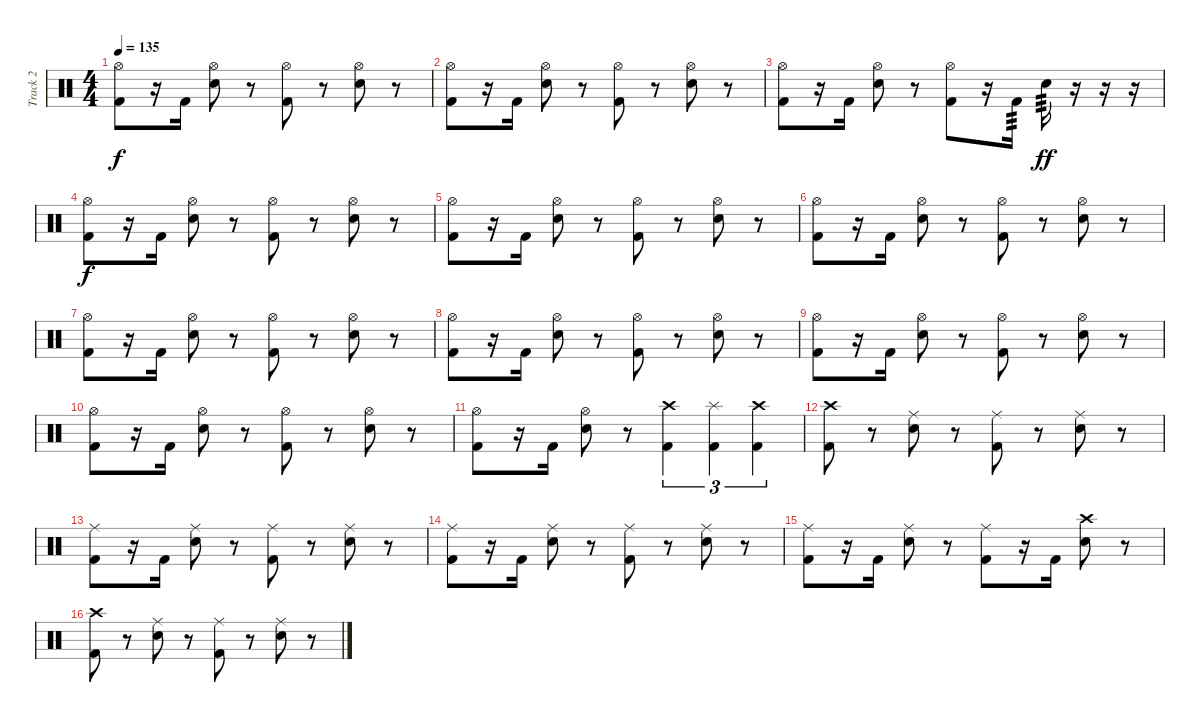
\track ("Track 2" "Track 2") {instrument percussion}
\staff {score}
\articulation defaults
\ts (4 4)
\tempo 135
\clef neutral
\ks c
("Hi-Hat (open)" "Kick (hit) 2").8{dy f} r.16 "Kick (hit) 2".16 ("Hi-Hat (open)" "Electric Snare (hit)").8 r.8 ("Hi-Hat (open)" "Kick (hit) 2").8 r.8 ("Hi-Hat (open)" "Electric Snare (hit)").8 r.8 |
("Hi-Hat (open)" "Kick (hit) 2").8 r.16 "Kick (hit) 2".16 ("Hi-Hat (open)" "Electric Snare (hit)").8 r.8 ("Hi-Hat (open)" "Kick (hit) 2").8 r.8 ("Hi-Hat (open)" "Electric Snare (hit)").8 r.8 |
("Hi-Hat (open)" "Kick (hit) 2").8 r.16 "Kick (hit) 2".16 ("Hi-Hat (open)" "Electric Snare (hit)").8 r.8 ("Hi-Hat (open)" "Kick (hit) 2").8 r.16 "Kick (hit) 2".16{tp 3} "Electric Snare (hit)".16{tp 3 dy ff} r.16 r.16 r.16 |
("Hi-Hat (open)" "Kick (hit) 2").8{dy f} r.16 "Kick (hit) 2".16 ("Hi-Hat (open)" "Electric Snare (hit)").8 r.8 ("Hi-Hat (open)" "Kick (hit) 2").8 r.8 ("Hi-Hat (open)" "Electric Snare (hit)").8 r.8 |
("Hi-Hat (open)" "Kick (hit) 2").8 r.16 "Kick (hit) 2".16 ("Hi-Hat (open)" "Electric Snare (hit)").8 r.8 ("Hi-Hat (open)" "Kick (hit) 2").8 r.8 ("Hi-Hat (open)" "Electric Snare (hit)").8 r.8 |
("Hi-Hat (open)" "Kick (hit) 2").8 r.16 "Kick (hit) 2".16 ("Hi-Hat (open)" "Electric Snare (hit)").8 r.8 ("Hi-Hat (open)" "Kick (hit) 2").8 r.8 ("Hi-Hat (open)" "Electric Snare (hit)").8 r.8 |
("Hi-Hat (open)" "Kick (hit) 2").8 r.16 "Kick (hit) 2".16 ("Hi-Hat (open)" "Electric Snare (hit)").8 r.8 ("Hi-Hat (open)" "Kick (hit) 2").8 r.8 ("Hi-Hat (open)" "Electric Snare (hit)").8 r.8 |
("Hi-Hat (open)" "Kick (hit) 2").8 r.16 "Kick (hit) 2".16 ("Hi-Hat (open)" "Electric Snare (hit)").8 r.8 ("Hi-Hat (open)" "Kick (hit) 2").8 r.8 ("Hi-Hat (open)" "Electric Snare (hit)").8 r.8 |
("Hi-Hat (open)" "Kick (hit) 2").8 r.16 "Kick (hit) 2".16 ("Hi-Hat (open)" "Electric Snare (hit)").8 r.8 ("Hi-Hat (open)" "Kick (hit) 2").8 r.8 ("Hi-Hat (open)" "Electric Snare (hit)").8 r.8 |
("Hi-Hat (open)" "Kick (hit) 2").8 r.16 "Kick (hit) 2".16 ("Hi-Hat (open)" "Electric Snare (hit)").8 r.8 ("Hi-Hat (open)" "Kick (hit) 2").8 r.8 ("Hi-Hat (open)" "Electric Snare (hit)").8 r.8 |
("Hi-Hat (open)" "Kick (hit) 2").8 r.16 "Kick (hit) 2".16 ("Hi-Hat (open)" "Electric Snare (hit)").8 r.8 ("Crash high (hit)" "Kick (hit) 2").4{tu (3 2)} ("Splash (hit)" "Kick (hit) 2").4{tu (3 2)} ("Crash high (hit)" "Kick (hit) 2").4{tu (3 2)} |
("Crash high (hit)" "Kick (hit) 2").8 r.8 ("Ride (middle)" "Electric Snare (hit)").8 r.8 ("Ride (middle)" "Kick (hit) 2").8 r.8 ("Ride (middle)" "Electric Snare (hit)").8 r.8 |
("Ride (middle)" "Kick (hit) 2").8 r.16 "Kick (hit) 2".16 ("Ride (middle)" "Electric Snare (hit)").8 r.8 ("Ride (middle)" "Kick (hit) 2").8 r.8 ("Ride (middle)" "Electric Snare (hit)").8 r.8 |
("Ride (middle)" "Kick (hit) 2").8 r.16 "Kick (hit) 2".16 ("Ride (middle)" "Electric Snare (hit)").8 r.8 ("Ride (middle)" "Kick (hit) 2").8 r.8 ("Ride (middle)" "Electric Snare (hit)").8 r.8 |
("Ride (middle)" "Kick (hit) 2").8 r.16 "Kick (hit) 2".16 ("Ride (middle)" "Electric Snare (hit)").8 r.8 ("Ride (middle)" "Kick (hit) 2").8 r.16 "Kick (hit) 2".16 ("Crash high (hit)" "Electric Snare (hit)").8 r.8 |
("Crash high (hit)" "Kick (hit) 2").8 r.8 ("Ride (middle)" "Electric Snare (hit)").8 r.8 ("Ride (middle)" "Kick (hit) 2").8 r.8 ("Ride (middle)" "Electric Snare (hit)").8 r.8
